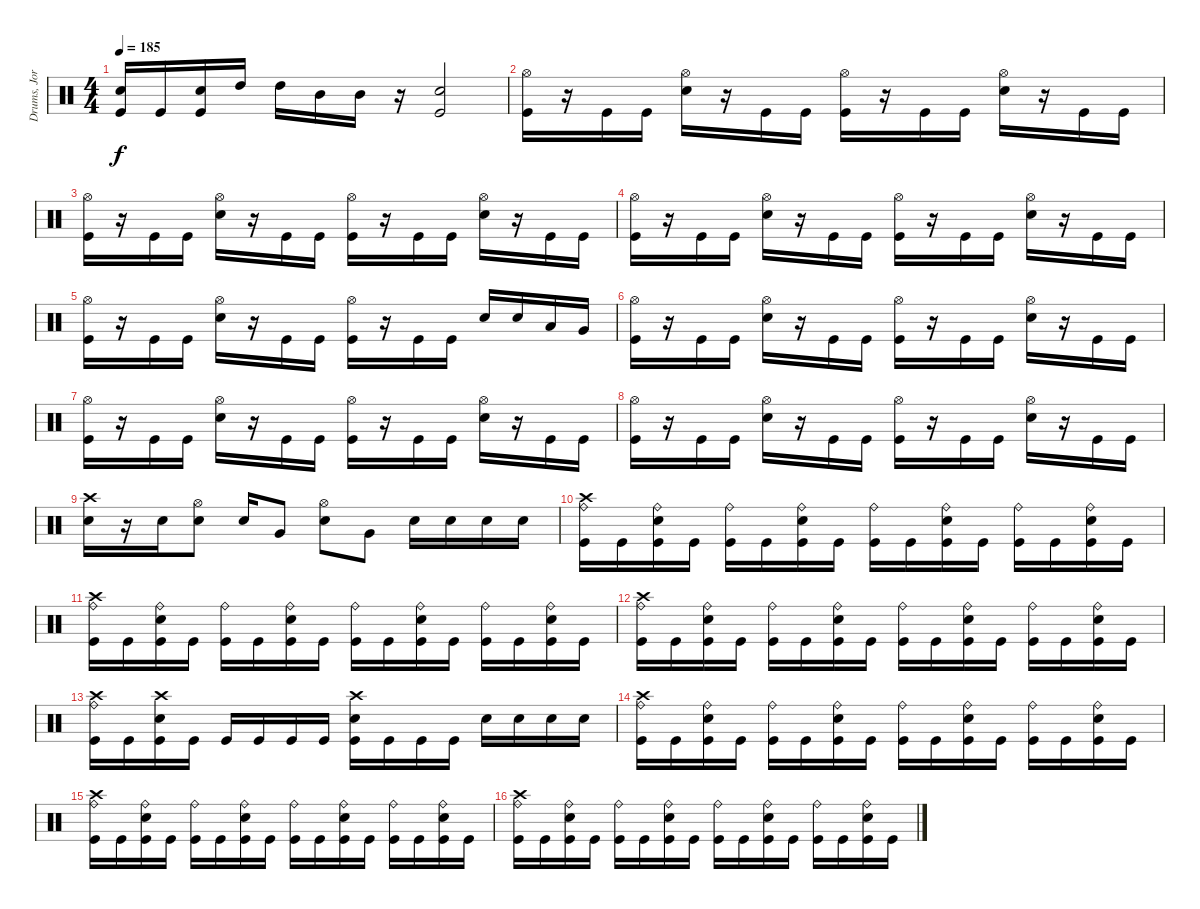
\track ("Drums, Jorye Sáez" "Drums, Jor") {instrument percussion}
\staff {score}
\articulation defaults
\ts (4 4)
\tempo 185
\clef neutral
\ks c
("Kick (hit)" "Electric Snare (hit)").16{dy f} "Kick (hit)".16 ("Kick (hit)" "Electric Snare (hit)").16 "High Tom (hit)".16 "High Tom (hit)".16 "Mid Tom (hit)".16 "Mid Tom (hit)".16 r.16 ("Kick (hit)" "Electric Snare (hit)").2 |
("Kick (hit)" "Hi-Hat (open)").16 r.16 "Kick (hit)".16 "Kick (hit)".16 ("Electric Snare (hit)" "Hi-Hat (open)").16 r.16 "Kick (hit)".16 "Kick (hit)".16 ("Kick (hit)" "Hi-Hat (open)").16 r.16 "Kick (hit)".16 "Kick (hit)".16 ("Electric Snare (hit)" "Hi-Hat (open)").16 r.16 "Kick (hit)".16 "Kick (hit)".16 |
("Kick (hit)" "Hi-Hat (open)").16 r.16 "Kick (hit)".16 "Kick (hit)".16 ("Electric Snare (hit)" "Hi-Hat (open)").16 r.16 "Kick (hit)".16 "Kick (hit)".16 ("Kick (hit)" "Hi-Hat (open)").16 r.16 "Kick (hit)".16 "Kick (hit)".16 ("Electric Snare (hit)" "Hi-Hat (open)").16 r.16 "Kick (hit)".16 "Kick (hit)".16 |
("Kick (hit)" "Hi-Hat (open)").16 r.16 "Kick (hit)".16 "Kick (hit)".16 ("Electric Snare (hit)" "Hi-Hat (open)").16 r.16 "Kick (hit)".16 "Kick (hit)".16 ("Kick (hit)" "Hi-Hat (open)").16 r.16 "Kick (hit)".16 "Kick (hit)".16 ("Electric Snare (hit)" "Hi-Hat (open)").16 r.16 "Kick (hit)".16 "Kick (hit)".16 |
("Kick (hit)" "Hi-Hat (open)").16 r.16 "Kick (hit)".16 "Kick (hit)".16 ("Electric Snare (hit)" "Hi-Hat (open)").16 r.16 "Kick (hit)".16 "Kick (hit)".16 ("Kick (hit)" "Hi-Hat (open)").16 r.16 "Kick (hit)".16 "Kick (hit)".16 "Electric Snare (hit)".16 "Electric Snare (hit)".16 "Low Tom (hit)".16 "Very Low Tom (hit)".16 |
("Kick (hit)" "Hi-Hat (open)").16 r.16 "Kick (hit)".16 "Kick (hit)".16 ("Electric Snare (hit)" "Hi-Hat (open)").16 r.16 "Kick (hit)".16 "Kick (hit)".16 ("Kick (hit)" "Hi-Hat (open)").16 r.16 "Kick (hit)".16 "Kick (hit)".16 ("Electric Snare (hit)" "Hi-Hat (open)").16 r.16 "Kick (hit)".16 "Kick (hit)".16 |
("Kick (hit)" "Hi-Hat (open)").16 r.16 "Kick (hit)".16 "Kick (hit)".16 ("Electric Snare (hit)" "Hi-Hat (open)").16 r.16 "Kick (hit)".16 "Kick (hit)".16 ("Kick (hit)" "Hi-Hat (open)").16 r.16 "Kick (hit)".16 "Kick (hit)".16 ("Electric Snare (hit)" "Hi-Hat (open)").16 r.16 "Kick (hit)".16 "Kick (hit)".16 |
("Kick (hit)" "Hi-Hat (open)").16 r.16 "Kick (hit)".16 "Kick (hit)".16 ("Electric Snare (hit)" "Hi-Hat (open)").16 r.16 "Kick (hit)".16 "Kick (hit)".16 ("Kick (hit)" "Hi-Hat (open)").16 r.16 "Kick (hit)".16 "Kick (hit)".16 ("Electric Snare (hit)" "Hi-Hat (open)").16 r.16 "Kick (hit)".16 "Kick (hit)".16 |
("Electric Snare (hit)" "Crash high (hit)").16 r.16 "Electric Snare (hit)".16 ("Electric Snare (hit)" "Hi-Hat (open)").8 "Electric Snare (hit)".16 "Very Low Tom (hit)".8 ("Electric Snare (hit)" "Hi-Hat (open)").8 "Very Low Tom (hit)".8 "Electric Snare (hit)".16 "Electric Snare (hit)".16 "Electric Snare (hit)".16 "Electric Snare (hit)".16 |
("Kick (hit)" "Ride (bell)" "Crash high (hit)").16 "Kick (hit)".16 ("Kick (hit)" "Electric Snare (hit)" "Ride (bell)").16 "Kick (hit)".16 ("Kick (hit)" "Ride (bell)").16 "Kick (hit)".16 ("Kick (hit)" "Electric Snare (hit)" "Ride (bell)").16 "Kick (hit)".16 ("Kick (hit)" "Ride (bell)").16 "Kick (hit)".16 ("Kick (hit)" "Electric Snare (hit)" "Ride (bell)").16 "Kick (hit)".16 ("Kick (hit)" "Ride (bell)").16 "Kick (hit)".16 ("Kick (hit)" "Electric Snare (hit)" "Ride (bell)").16 "Kick (hit)".16 |
("Kick (hit)" "Ride (bell)" "Crash high (hit)").16 "Kick (hit)".16 ("Kick (hit)" "Electric Snare (hit)" "Ride (bell)").16 "Kick (hit)".16 ("Kick (hit)" "Ride (bell)").16 "Kick (hit)".16 ("Kick (hit)" "Electric Snare (hit)" "Ride (bell)").16 "Kick (hit)".16 ("Kick (hit)" "Ride (bell)").16 "Kick (hit)".16 ("Kick (hit)" "Electric Snare (hit)" "Ride (bell)").16 "Kick (hit)".16 ("Kick (hit)" "Ride (bell)").16 "Kick (hit)".16 ("Kick (hit)" "Electric Snare (hit)" "Ride (bell)").16 "Kick (hit)".16 |
("Kick (hit)" "Ride (bell)" "Crash high (hit)").16 "Kick (hit)".16 ("Kick (hit)" "Electric Snare (hit)" "Ride (bell)").16 "Kick (hit)".16 ("Kick (hit)" "Ride (bell)").16 "Kick (hit)".16 ("Kick (hit)" "Electric Snare (hit)" "Ride (bell)").16 "Kick (hit)".16 ("Kick (hit)" "Ride (bell)").16 "Kick (hit)".16 ("Kick (hit)" "Electric Snare (hit)" "Ride (bell)").16 "Kick (hit)".16 ("Kick (hit)" "Ride (bell)").16 "Kick (hit)".16 ("Kick (hit)" "Electric Snare (hit)" "Ride (bell)").16 "Kick (hit)".16 |
("Kick (hit)" "Ride (bell)" "Crash high (hit)").16 "Kick (hit)".16 ("Kick (hit)" "Electric Snare (hit)" "Crash high (hit)").16 "Kick (hit)".16 "Kick (hit)".16 "Kick (hit)".16 "Kick (hit)".16 "Kick (hit)".16 ("Kick (hit)" "Crash high (hit)" "Electric Snare (hit)").16 "Kick (hit)".16 "Kick (hit)".16 "Kick (hit)".16 "Electric Snare (hit)".16 "Electric Snare (hit)".16 "Electric Snare (hit)".16 "Electric Snare (hit)".16 |
("Kick (hit)" "Ride (bell)" "Crash high (hit)").16 "Kick (hit)".16 ("Kick (hit)" "Electric Snare (hit)" "Ride (bell)").16 "Kick (hit)".16 ("Kick (hit)" "Ride (bell)").16 "Kick (hit)".16 ("Kick (hit)" "Electric Snare (hit)" "Ride (bell)").16 "Kick (hit)".16 ("Kick (hit)" "Ride (bell)").16 "Kick (hit)".16 ("Kick (hit)" "Electric Snare (hit)" "Ride (bell)").16 "Kick (hit)".16 ("Kick (hit)" "Ride (bell)").16 "Kick (hit)".16 ("Kick (hit)" "Electric Snare (hit)" "Ride (bell)").16 "Kick (hit)".16 |
("Kick (hit)" "Ride (bell)" "Crash high (hit)").16 "Kick (hit)".16 ("Kick (hit)" "Electric Snare (hit)" "Ride (bell)").16 "Kick (hit)".16 ("Kick (hit)" "Ride (bell)").16 "Kick (hit)".16 ("Kick (hit)" "Electric Snare (hit)" "Ride (bell)").16 "Kick (hit)".16 ("Kick (hit)" "Ride (bell)").16 "Kick (hit)".16 ("Kick (hit)" "Electric Snare (hit)" "Ride (bell)").16 "Kick (hit)".16 ("Kick (hit)" "Ride (bell)").16 "Kick (hit)".16 ("Kick (hit)" "Electric Snare (hit)" "Ride (bell)").16 "Kick (hit)".16 |
("Kick (hit)" "Ride (bell)" "Crash high (hit)").16 "Kick (hit)".16 ("Kick (hit)" "Electric Snare (hit)" "Ride (bell)").16 "Kick (hit)".16 ("Kick (hit)" "Ride (bell)").16 "Kick (hit)".16 ("Kick (hit)" "Electric Snare (hit)" "Ride (bell)").16 "Kick (hit)".16 ("Kick (hit)" "Ride (bell)").16 "Kick (hit)".16 ("Kick (hit)" "Electric Snare (hit)" "Ride (bell)").16 "Kick (hit)".16 ("Kick (hit)" "Ride (bell)").16 "Kick (hit)".16 ("Kick (hit)" "Electric Snare (hit)" "Ride (bell)").16 "Kick (hit)".16
